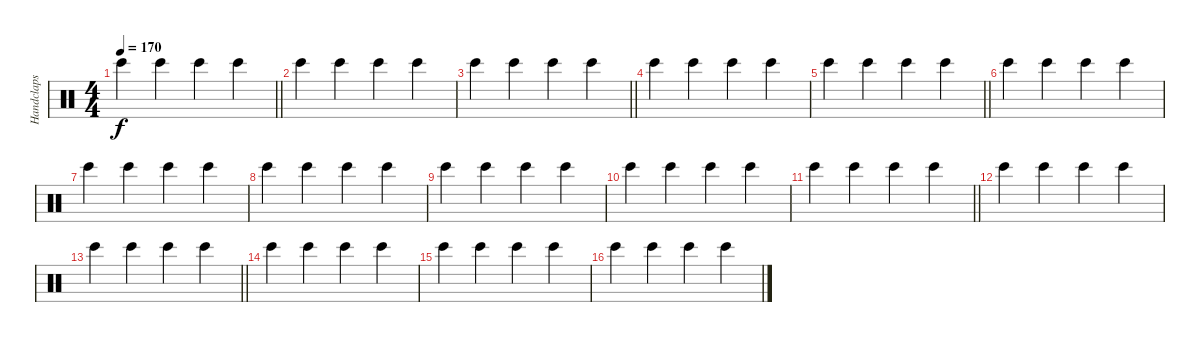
\track ("Handclaps" "Handclaps") {instrument percussion}
\staff {score}
\articulation defaults
\ts (4 4)
\tempo 170
\clef neutral
\barLineRight lightlight
\ks c "Bongo High (hit)".4{dy f} "Bongo High (hit)".4 "Bongo High (hit)".4 "Bongo High (hit)".4
|
"Bongo High (hit)".4 "Bongo High (hit)".4 "Bongo High (hit)".4 "Bongo High (hit)".4 |
\barLineRight lightlight "Bongo High (hit)".4 "Bongo High (hit)".4 "Bongo High (hit)".4 "Bongo High (hit)".4
|
"Bongo High (hit)".4 "Bongo High (hit)".4 "Bongo High (hit)".4 "Bongo High (hit)".4 |
\barLineRight lightlight "Bongo High (hit)".4 "Bongo High (hit)".4 "Bongo High (hit)".4 "Bongo High (hit)".4
|
"Bongo High (hit)".4 "Bongo High (hit)".4 "Bongo High (hit)".4 "Bongo High (hit)".4 |
"Bongo High (hit)".4 "Bongo High (hit)".4 "Bongo High (hit)".4 "Bongo High (hit)".4 |
"Bongo High (hit)".4 "Bongo High (hit)".4 "Bongo High (hit)".4 "Bongo High (hit)".4 |
"Bongo High (hit)".4 "Bongo High (hit)".4 "Bongo High (hit)".4 "Bongo High (hit)".4 |
"Bongo High (hit)".4 "Bongo High (hit)".4 "Bongo High (hit)".4 "Bongo High (hit)".4 |
\barLineRight lightlight "Bongo High (hit)".4 "Bongo High (hit)".4 "Bongo High (hit)".4 "Bongo High (hit)".4
|
"Bongo High (hit)".4 "Bongo High (hit)".4 "Bongo High (hit)".4 "Bongo High (hit)".4 |
\barLineRight lightlight "Bongo High (hit)".4 "Bongo High (hit)".4 "Bongo High (hit)".4 "Bongo High (hit)".4
|
"Bongo High (hit)".4 "Bongo High (hit)".4 "Bongo High (hit)".4 "Bongo High (hit)".4 |
"Bongo High (hit)".4 "Bongo High (hit)".4 "Bongo High (hit)".4 "Bongo High (hit)".4 |
"Bongo High (hit)".4 "Bongo High (hit)".4 "Bongo High (hit)".4 "Bongo High (hit)".4
